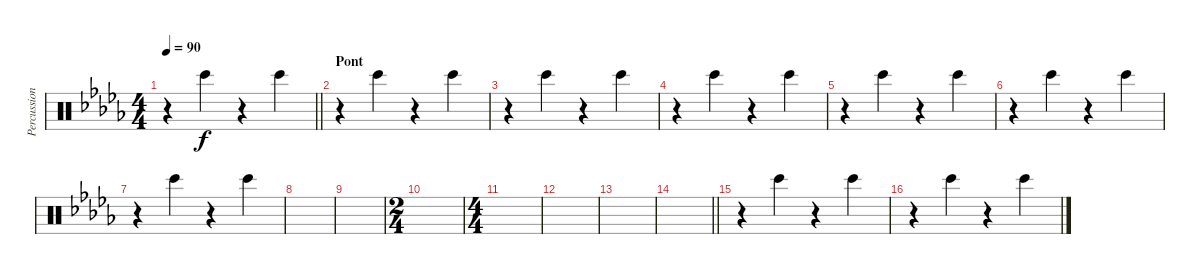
\track ("Percussions" "Percussion") {instrument percussion}
\staff {score}
\articulation defaults
\ts (4 4)
\tempo 90
\clef neutral
\barLineRight lightlight
\ks db
r.4{dy f} "Bongo High (hit)".4 r.4 "Bongo High (hit)".4 |
\section ("" "Pont")
r.4 "Bongo High (hit)".4 r.4 "Bongo High (hit)".4 |
r.4 "Bongo High (hit)".4 r.4 "Bongo High (hit)".4 |
r.4 "Bongo High (hit)".4 r.4 "Bongo High (hit)".4 |
r.4 "Bongo High (hit)".4 r.4 "Bongo High (hit)".4 |
r.4 "Bongo High (hit)".4 r.4 "Bongo High (hit)".4 |
r.4 "Bongo High (hit)".4 r.4 "Bongo High (hit)".4 |
|
|
\ts (2 4)
|
\ts (4 4)
|
|
|
\barLineRight lightlight
|
r.4 "Bongo High (hit)".4 r.4 "Bongo High (hit)".4 |
r.4 "Bongo High (hit)".4 r.4 "Bongo High (hit)".4
